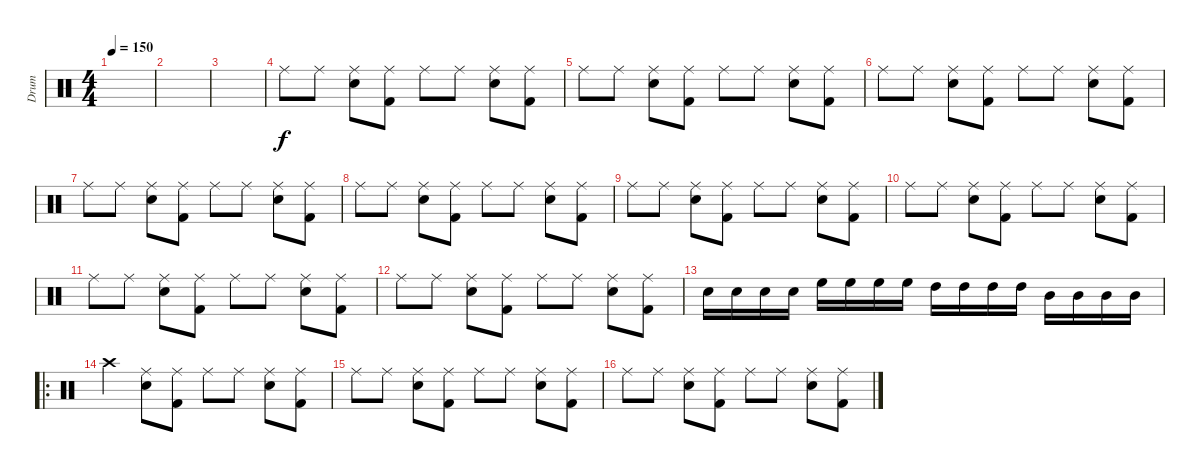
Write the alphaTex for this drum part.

\track ("Drum" "Drum") {instrument percussion}
\staff {score}
\articulation defaults
\ts (4 4)
\tempo 150
\clef neutral
\ks c
|
|
|
"Ride (middle)".8 "Ride (middle)".8 ("Ride (middle)" "Snare (hit) 2").8 ("Ride (middle)" "Kick (hit) 2").8 "Ride (middle)".8 "Ride (middle)".8 ("Ride (middle)" "Snare (hit) 2").8 ("Ride (middle)" "Kick (hit) 2").8 |
"Ride (middle)".8 "Ride (middle)".8 ("Ride (middle)" "Snare (hit) 2").8 ("Ride (middle)" "Kick (hit) 2").8 "Ride (middle)".8 "Ride (middle)".8 ("Ride (middle)" "Snare (hit) 2").8 ("Ride (middle)" "Kick (hit) 2").8 |
"Ride (middle)".8 "Ride (middle)".8 ("Ride (middle)" "Snare (hit) 2").8 ("Ride (middle)" "Kick (hit) 2").8 "Ride (middle)".8 "Ride (middle)".8 ("Ride (middle)" "Snare (hit) 2").8 ("Ride (middle)" "Kick (hit) 2").8 |
"Ride (middle)".8 "Ride (middle)".8 ("Ride (middle)" "Snare (hit) 2").8 ("Ride (middle)" "Kick (hit) 2").8 "Ride (middle)".8 "Ride (middle)".8 ("Ride (middle)" "Snare (hit) 2").8 ("Ride (middle)" "Kick (hit) 2").8 |
"Ride (middle)".8 "Ride (middle)".8 ("Ride (middle)" "Snare (hit) 2").8 ("Ride (middle)" "Kick (hit) 2").8 "Ride (middle)".8 "Ride (middle)".8 ("Ride (middle)" "Snare (hit) 2").8 ("Ride (middle)" "Kick (hit) 2").8 |
"Ride (middle)".8 "Ride (middle)".8 ("Ride (middle)" "Snare (hit) 2").8 ("Ride (middle)" "Kick (hit) 2").8 "Ride (middle)".8 "Ride (middle)".8 ("Ride (middle)" "Snare (hit) 2").8 ("Ride (middle)" "Kick (hit) 2").8 |
"Ride (middle)".8 "Ride (middle)".8 ("Ride (middle)" "Snare (hit) 2").8 ("Ride (middle)" "Kick (hit) 2").8 "Ride (middle)".8 "Ride (middle)".8 ("Ride (middle)" "Snare (hit) 2").8 ("Ride (middle)" "Kick (hit) 2").8 |
"Ride (middle)".8 "Ride (middle)".8 ("Ride (middle)" "Snare (hit) 2").8 ("Ride (middle)" "Kick (hit) 2").8 "Ride (middle)".8 "Ride (middle)".8 ("Ride (middle)" "Snare (hit) 2").8 ("Ride (middle)" "Kick (hit) 2").8 |
"Ride (middle)".8 "Ride (middle)".8 ("Ride (middle)" "Snare (hit) 2").8 ("Ride (middle)" "Kick (hit) 2").8 "Ride (middle)".8 "Ride (middle)".8 ("Ride (middle)" "Snare (hit) 2").8 ("Ride (middle)" "Kick (hit) 2").8 |
"Snare (hit) 2".16 "Snare (hit) 2".16 "Snare (hit) 2".16 "Snare (hit) 2".16 "High Floor Tom (hit)".16 "High Floor Tom (hit)".16 "High Floor Tom (hit)".16 "High Floor Tom (hit)".16 "High Tom (hit)".16 "High Tom (hit)".16 "High Tom (hit)".16 "High Tom (hit)".16 "Mid Tom (hit)".16 "Mid Tom (hit)".16 "Mid Tom (hit)".16 "Mid Tom (hit)".16 |
\ro "Crash high (hit)".4
("Ride (middle)" "Snare (hit) 2").8 ("Ride (middle)" "Kick (hit) 2").8 "Ride (middle)".8 "Ride (middle)".8 ("Ride (middle)" "Snare (hit) 2").8 ("Ride (middle)" "Kick (hit) 2").8 |
"Ride (middle)".8 "Ride (middle)".8 ("Ride (middle)" "Snare (hit) 2").8 ("Ride (middle)" "Kick (hit) 2").8 "Ride (middle)".8 "Ride (middle)".8 ("Ride (middle)" "Snare (hit) 2").8 ("Ride (middle)" "Kick (hit) 2").8 |
"Ride (middle)".8 "Ride (middle)".8 ("Ride (middle)" "Snare (hit) 2").8 ("Ride (middle)" "Kick (hit) 2").8 "Ride (middle)".8 "Ride (middle)".8 ("Ride (middle)" "Snare (hit) 2").8 ("Ride (middle)" "Kick (hit) 2").8
